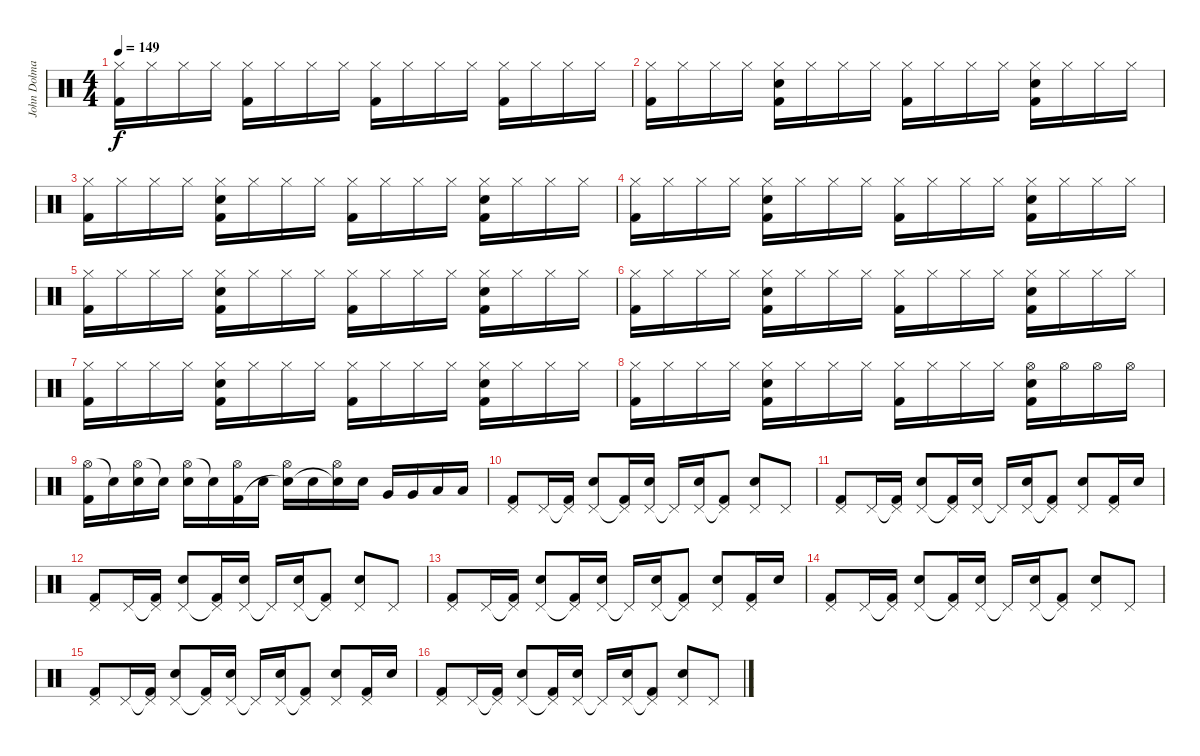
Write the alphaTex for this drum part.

\track ("John Dolmayan (Drums)" "John Dolma") {instrument percussion}
\staff {score}
\articulation defaults
\ts (4 4)
\tempo 149
\clef neutral
\ks c
("Hi-Hat (closed)" "Kick (hit) 2").16{dy f} "Hi-Hat (closed)".16 "Hi-Hat (closed)".16 "Hi-Hat (closed)".16 ("Hi-Hat (closed)" "Kick (hit) 2").16 "Hi-Hat (closed)".16 "Hi-Hat (closed)".16 "Hi-Hat (closed)".16 ("Hi-Hat (closed)" "Kick (hit) 2").16 "Hi-Hat (closed)".16 "Hi-Hat (closed)".16 "Hi-Hat (closed)".16 ("Hi-Hat (closed)" "Kick (hit) 2").16 "Hi-Hat (closed)".16 "Hi-Hat (closed)".16 "Hi-Hat (closed)".16 |
("Hi-Hat (closed)" "Kick (hit) 2").16 "Hi-Hat (closed)".16 "Hi-Hat (closed)".16 "Hi-Hat (closed)".16 ("Hi-Hat (closed)" "Electric Snare (hit)" "Kick (hit) 2").16 "Hi-Hat (closed)".16 "Hi-Hat (closed)".16 "Hi-Hat (closed)".16 ("Hi-Hat (closed)" "Kick (hit) 2").16 "Hi-Hat (closed)".16 "Hi-Hat (closed)".16 "Hi-Hat (closed)".16 ("Hi-Hat (closed)" "Electric Snare (hit)" "Kick (hit) 2").16 "Hi-Hat (closed)".16 "Hi-Hat (closed)".16 "Hi-Hat (closed)".16 |
("Hi-Hat (closed)" "Kick (hit) 2").16 "Hi-Hat (closed)".16 "Hi-Hat (closed)".16 "Hi-Hat (closed)".16 ("Hi-Hat (closed)" "Electric Snare (hit)" "Kick (hit) 2").16 "Hi-Hat (closed)".16 "Hi-Hat (closed)".16 "Hi-Hat (closed)".16 ("Hi-Hat (closed)" "Kick (hit) 2").16 "Hi-Hat (closed)".16 "Hi-Hat (closed)".16 "Hi-Hat (closed)".16 ("Hi-Hat (closed)" "Electric Snare (hit)" "Kick (hit) 2").16 "Hi-Hat (closed)".16 "Hi-Hat (closed)".16 "Hi-Hat (closed)".16 |
("Hi-Hat (closed)" "Kick (hit) 2").16 "Hi-Hat (closed)".16 "Hi-Hat (closed)".16 "Hi-Hat (closed)".16 ("Hi-Hat (closed)" "Electric Snare (hit)" "Kick (hit) 2").16 "Hi-Hat (closed)".16 "Hi-Hat (closed)".16 "Hi-Hat (closed)".16 ("Hi-Hat (closed)" "Kick (hit) 2").16 "Hi-Hat (closed)".16 "Hi-Hat (closed)".16 "Hi-Hat (closed)".16 ("Hi-Hat (closed)" "Electric Snare (hit)" "Kick (hit) 2").16 "Hi-Hat (closed)".16 "Hi-Hat (closed)".16 "Hi-Hat (closed)".16 |
("Hi-Hat (closed)" "Kick (hit) 2").16 "Hi-Hat (closed)".16 "Hi-Hat (closed)".16 "Hi-Hat (closed)".16 ("Hi-Hat (closed)" "Electric Snare (hit)" "Kick (hit) 2").16 "Hi-Hat (closed)".16 "Hi-Hat (closed)".16 "Hi-Hat (closed)".16 ("Hi-Hat (closed)" "Kick (hit) 2").16 "Hi-Hat (closed)".16 "Hi-Hat (closed)".16 "Hi-Hat (closed)".16 ("Hi-Hat (closed)" "Electric Snare (hit)" "Kick (hit) 2").16 "Hi-Hat (closed)".16 "Hi-Hat (closed)".16 "Hi-Hat (closed)".16 |
("Hi-Hat (closed)" "Kick (hit) 2").16 "Hi-Hat (closed)".16 "Hi-Hat (closed)".16 "Hi-Hat (closed)".16 ("Hi-Hat (closed)" "Electric Snare (hit)" "Kick (hit) 2").16 "Hi-Hat (closed)".16 "Hi-Hat (closed)".16 "Hi-Hat (closed)".16 ("Hi-Hat (closed)" "Kick (hit) 2").16 "Hi-Hat (closed)".16 "Hi-Hat (closed)".16 "Hi-Hat (closed)".16 ("Hi-Hat (closed)" "Electric Snare (hit)" "Kick (hit) 2").16 "Hi-Hat (closed)".16 "Hi-Hat (closed)".16 "Hi-Hat (closed)".16 |
("Hi-Hat (closed)" "Kick (hit) 2").16 "Hi-Hat (closed)".16 "Hi-Hat (closed)".16 "Hi-Hat (closed)".16 ("Hi-Hat (closed)" "Electric Snare (hit)" "Kick (hit) 2").16 "Hi-Hat (closed)".16 "Hi-Hat (closed)".16 "Hi-Hat (closed)".16 ("Hi-Hat (closed)" "Kick (hit) 2").16 "Hi-Hat (closed)".16 "Hi-Hat (closed)".16 "Hi-Hat (closed)".16 ("Hi-Hat (closed)" "Electric Snare (hit)" "Kick (hit) 2").16 "Hi-Hat (closed)".16 "Hi-Hat (closed)".16 "Hi-Hat (closed)".16 |
("Hi-Hat (closed)" "Kick (hit) 2").16 "Hi-Hat (closed)".16 "Hi-Hat (closed)".16 "Hi-Hat (closed)".16 ("Hi-Hat (closed)" "Electric Snare (hit)" "Kick (hit) 2").16 "Hi-Hat (closed)".16 "Hi-Hat (closed)".16 "Hi-Hat (closed)".16 ("Hi-Hat (closed)" "Kick (hit) 2").16 "Hi-Hat (closed)".16 "Hi-Hat (closed)".16 "Hi-Hat (closed)".16 ("Hi-Hat (open)" "Electric Snare (hit)" "Kick (hit) 2").16 "Hi-Hat (open)".16 "Hi-Hat (open)".16 "Hi-Hat (open)".16 |
("Hi-Hat (open)" "Kick (hit) 2").16 "Snare (hit)"{t}.16 ("Hi-Hat (open)" "Electric Snare (hit)").16 "Snare (hit)"{t}.16 ("Hi-Hat (open)" "Electric Snare (hit)").16 "Snare (hit)"{t}.16 ("Hi-Hat (open)" "Kick (hit) 2").16 "Electric Snare (hit)".16 ("Hi-Hat (open)" "Snare (hit)"{t}).16 "Electric Snare (hit)".16 ("Hi-Hat (open)" "Snare (hit)"{t}).16 "Electric Snare (hit)".16 "Very Low Tom (hit)".16 "Very Low Tom (hit)".16 "Low Floor Tom (hit)".16 "Low Floor Tom (hit)".16 |
("Pedal Hi-Hat (hit)" "Kick (hit) 2").8 "Pedal Hi-Hat (hit)".16 ("Pedal Hi-Hat (hit)"{t} "Kick (hit) 2").16 ("Pedal Hi-Hat (hit)" "Electric Snare (hit)").8 ("Pedal Hi-Hat (hit)"{t} "Kick (hit) 2").16 ("Pedal Hi-Hat (hit)" "Electric Snare (hit)").16 "Pedal Hi-Hat (hit)"{t}.16 ("Pedal Hi-Hat (hit)" "Electric Snare (hit)").16 ("Pedal Hi-Hat (hit)"{t} "Kick (hit) 2").8 ("Pedal Hi-Hat (hit)" "Electric Snare (hit)").8 "Pedal Hi-Hat (hit)".8 |
("Pedal Hi-Hat (hit)" "Kick (hit) 2").8 "Pedal Hi-Hat (hit)".16 ("Pedal Hi-Hat (hit)"{t} "Kick (hit) 2").16 ("Pedal Hi-Hat (hit)" "Electric Snare (hit)").8 ("Pedal Hi-Hat (hit)"{t} "Kick (hit) 2").16 ("Pedal Hi-Hat (hit)" "Electric Snare (hit)").16 "Pedal Hi-Hat (hit)"{t}.16 ("Pedal Hi-Hat (hit)" "Electric Snare (hit)").16 ("Pedal Hi-Hat (hit)"{t} "Kick (hit) 2").8 ("Pedal Hi-Hat (hit)" "Electric Snare (hit)").8 ("Pedal Hi-Hat (hit)" "Kick (hit) 2").16 "Electric Snare (hit)".16 |
("Pedal Hi-Hat (hit)" "Kick (hit) 2").8 "Pedal Hi-Hat (hit)".16 ("Pedal Hi-Hat (hit)"{t} "Kick (hit) 2").16 ("Pedal Hi-Hat (hit)" "Electric Snare (hit)").8 ("Pedal Hi-Hat (hit)"{t} "Kick (hit) 2").16 ("Pedal Hi-Hat (hit)" "Electric Snare (hit)").16 "Pedal Hi-Hat (hit)"{t}.16 ("Pedal Hi-Hat (hit)" "Electric Snare (hit)").16 ("Pedal Hi-Hat (hit)"{t} "Kick (hit) 2").8 ("Pedal Hi-Hat (hit)" "Electric Snare (hit)").8 "Pedal Hi-Hat (hit)".8 |
("Pedal Hi-Hat (hit)" "Kick (hit) 2").8 "Pedal Hi-Hat (hit)".16 ("Pedal Hi-Hat (hit)"{t} "Kick (hit) 2").16 ("Pedal Hi-Hat (hit)" "Electric Snare (hit)").8 ("Pedal Hi-Hat (hit)"{t} "Kick (hit) 2").16 ("Pedal Hi-Hat (hit)" "Electric Snare (hit)").16 "Pedal Hi-Hat (hit)"{t}.16 ("Pedal Hi-Hat (hit)" "Electric Snare (hit)").16 ("Pedal Hi-Hat (hit)"{t} "Kick (hit) 2").8 ("Pedal Hi-Hat (hit)" "Electric Snare (hit)").8 ("Pedal Hi-Hat (hit)" "Kick (hit) 2").16 "Electric Snare (hit)".16 |
("Pedal Hi-Hat (hit)" "Kick (hit) 2").8 "Pedal Hi-Hat (hit)".16 ("Pedal Hi-Hat (hit)"{t} "Kick (hit) 2").16 ("Pedal Hi-Hat (hit)" "Electric Snare (hit)").8 ("Pedal Hi-Hat (hit)"{t} "Kick (hit) 2").16 ("Pedal Hi-Hat (hit)" "Electric Snare (hit)").16 "Pedal Hi-Hat (hit)"{t}.16 ("Pedal Hi-Hat (hit)" "Electric Snare (hit)").16 ("Pedal Hi-Hat (hit)"{t} "Kick (hit) 2").8 ("Pedal Hi-Hat (hit)" "Electric Snare (hit)").8 "Pedal Hi-Hat (hit)".8 |
("Pedal Hi-Hat (hit)" "Kick (hit) 2").8 "Pedal Hi-Hat (hit)".16 ("Pedal Hi-Hat (hit)"{t} "Kick (hit) 2").16 ("Pedal Hi-Hat (hit)" "Electric Snare (hit)").8 ("Pedal Hi-Hat (hit)"{t} "Kick (hit) 2").16 ("Pedal Hi-Hat (hit)" "Electric Snare (hit)").16 "Pedal Hi-Hat (hit)"{t}.16 ("Pedal Hi-Hat (hit)" "Electric Snare (hit)").16 ("Pedal Hi-Hat (hit)"{t} "Kick (hit) 2").8 ("Pedal Hi-Hat (hit)" "Electric Snare (hit)").8 ("Pedal Hi-Hat (hit)" "Kick (hit) 2").16 "Electric Snare (hit)".16 |
("Pedal Hi-Hat (hit)" "Kick (hit) 2").8 "Pedal Hi-Hat (hit)".16 ("Pedal Hi-Hat (hit)"{t} "Kick (hit) 2").16 ("Pedal Hi-Hat (hit)" "Electric Snare (hit)").8 ("Pedal Hi-Hat (hit)"{t} "Kick (hit) 2").16 ("Pedal Hi-Hat (hit)" "Electric Snare (hit)").16 "Pedal Hi-Hat (hit)"{t}.16 ("Pedal Hi-Hat (hit)" "Electric Snare (hit)").16 ("Pedal Hi-Hat (hit)"{t} "Kick (hit) 2").8 ("Pedal Hi-Hat (hit)" "Electric Snare (hit)").8 "Pedal Hi-Hat (hit)".8
